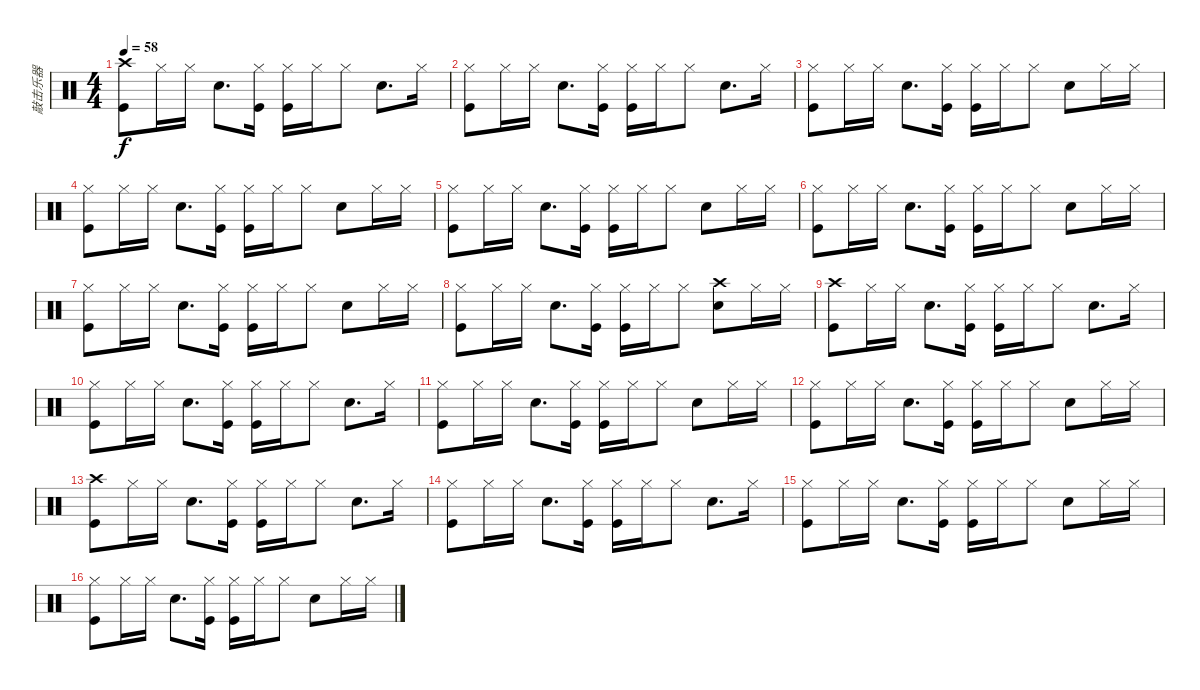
\track ("敲击乐器" "敲击乐器") {instrument percussion}
\staff {score}
\articulation defaults
\ts (4 4)
\tempo 58
\clef neutral
\ks c
("Crash high (hit)" "Kick (hit)").8{dy f} "Hi-Hat (closed)".16 "Hi-Hat (closed)".16 "Hand Clap (hit)".8{d} ("Hi-Hat (closed)" "Kick (hit)").16 ("Hi-Hat (closed)" "Kick (hit)").16 "Hi-Hat (closed)".16 "Hi-Hat (closed)".8 "Hand Clap (hit)".8{d} "Hi-Hat (closed)".16 |
("Hi-Hat (closed)" "Kick (hit)").8 "Hi-Hat (closed)".16 "Hi-Hat (closed)".16 "Hand Clap (hit)".8{d} ("Hi-Hat (closed)" "Kick (hit)").16 ("Hi-Hat (closed)" "Kick (hit)").16 "Hi-Hat (closed)".16 "Hi-Hat (closed)".8 "Hand Clap (hit)".8{d} "Hi-Hat (closed)".16 |
("Hi-Hat (closed)" "Kick (hit)").8 "Hi-Hat (closed)".16 "Hi-Hat (closed)".16 "Hand Clap (hit)".8{d} ("Hi-Hat (closed)" "Kick (hit)").16 ("Hi-Hat (closed)" "Kick (hit)").16 "Hi-Hat (closed)".16 "Hi-Hat (closed)".8 "Hand Clap (hit)".8 "Hi-Hat (closed)".16 "Hi-Hat (closed)".16 |
("Hi-Hat (closed)" "Kick (hit)").8 "Hi-Hat (closed)".16 "Hi-Hat (closed)".16 "Hand Clap (hit)".8{d} ("Hi-Hat (closed)" "Kick (hit)").16 ("Hi-Hat (closed)" "Kick (hit)").16 "Hi-Hat (closed)".16 "Hi-Hat (closed)".8 "Hand Clap (hit)".8 "Hi-Hat (closed)".16 "Hi-Hat (closed)".16 |
("Hi-Hat (closed)" "Kick (hit)").8 "Hi-Hat (closed)".16 "Hi-Hat (closed)".16 "Hand Clap (hit)".8{d} ("Hi-Hat (closed)" "Kick (hit)").16 ("Hi-Hat (closed)" "Kick (hit)").16 "Hi-Hat (closed)".16 "Hi-Hat (closed)".8 "Hand Clap (hit)".8 "Hi-Hat (closed)".16 "Hi-Hat (closed)".16 |
("Hi-Hat (closed)" "Kick (hit)").8 "Hi-Hat (closed)".16 "Hi-Hat (closed)".16 "Hand Clap (hit)".8{d} ("Hi-Hat (closed)" "Kick (hit)").16 ("Hi-Hat (closed)" "Kick (hit)").16 "Hi-Hat (closed)".16 "Hi-Hat (closed)".8 "Hand Clap (hit)".8 "Hi-Hat (closed)".16 "Hi-Hat (closed)".16 |
("Hi-Hat (closed)" "Kick (hit)").8 "Hi-Hat (closed)".16 "Hi-Hat (closed)".16 "Hand Clap (hit)".8{d} ("Hi-Hat (closed)" "Kick (hit)").16 ("Hi-Hat (closed)" "Kick (hit)").16 "Hi-Hat (closed)".16 "Hi-Hat (closed)".8 "Hand Clap (hit)".8 "Hi-Hat (closed)".16 "Hi-Hat (closed)".16 |
("Hi-Hat (closed)" "Kick (hit)").8 "Hi-Hat (closed)".16 "Hi-Hat (closed)".16 "Hand Clap (hit)".8{d} ("Hi-Hat (closed)" "Kick (hit)").16 ("Hi-Hat (closed)" "Kick (hit)").16 "Hi-Hat (closed)".16 "Hi-Hat (closed)".8 ("Crash high (hit)" "Hand Clap (hit)").8 "Hi-Hat (closed)".16 "Hi-Hat (closed)".16 |
("Crash high (hit)" "Kick (hit)").8 "Hi-Hat (closed)".16 "Hi-Hat (closed)".16 "Hand Clap (hit)".8{d} ("Hi-Hat (closed)" "Kick (hit)").16 ("Hi-Hat (closed)" "Kick (hit)").16 "Hi-Hat (closed)".16 "Hi-Hat (closed)".8 "Hand Clap (hit)".8{d} "Hi-Hat (closed)".16 |
("Hi-Hat (closed)" "Kick (hit)").8 "Hi-Hat (closed)".16 "Hi-Hat (closed)".16 "Hand Clap (hit)".8{d} ("Hi-Hat (closed)" "Kick (hit)").16 ("Hi-Hat (closed)" "Kick (hit)").16 "Hi-Hat (closed)".16 "Hi-Hat (closed)".8 "Hand Clap (hit)".8{d} "Hi-Hat (closed)".16 |
("Hi-Hat (closed)" "Kick (hit)").8 "Hi-Hat (closed)".16 "Hi-Hat (closed)".16 "Hand Clap (hit)".8{d} ("Hi-Hat (closed)" "Kick (hit)").16 ("Hi-Hat (closed)" "Kick (hit)").16 "Hi-Hat (closed)".16 "Hi-Hat (closed)".8 "Hand Clap (hit)".8 "Hi-Hat (closed)".16 "Hi-Hat (closed)".16 |
("Hi-Hat (closed)" "Kick (hit)").8 "Hi-Hat (closed)".16 "Hi-Hat (closed)".16 "Hand Clap (hit)".8{d} ("Hi-Hat (closed)" "Kick (hit)").16 ("Hi-Hat (closed)" "Kick (hit)").16 "Hi-Hat (closed)".16 "Hi-Hat (closed)".8 "Hand Clap (hit)".8 "Hi-Hat (closed)".16 "Hi-Hat (closed)".16 |
("Crash high (hit)" "Kick (hit)").8 "Hi-Hat (closed)".16 "Hi-Hat (closed)".16 "Hand Clap (hit)".8{d} ("Hi-Hat (closed)" "Kick (hit)").16 ("Hi-Hat (closed)" "Kick (hit)").16 "Hi-Hat (closed)".16 "Hi-Hat (closed)".8 "Hand Clap (hit)".8{d} "Hi-Hat (closed)".16 |
("Hi-Hat (closed)" "Kick (hit)").8 "Hi-Hat (closed)".16 "Hi-Hat (closed)".16 "Hand Clap (hit)".8{d} ("Hi-Hat (closed)" "Kick (hit)").16 ("Hi-Hat (closed)" "Kick (hit)").16 "Hi-Hat (closed)".16 "Hi-Hat (closed)".8 "Hand Clap (hit)".8{d} "Hi-Hat (closed)".16 |
("Hi-Hat (closed)" "Kick (hit)").8 "Hi-Hat (closed)".16 "Hi-Hat (closed)".16 "Hand Clap (hit)".8{d} ("Hi-Hat (closed)" "Kick (hit)").16 ("Hi-Hat (closed)" "Kick (hit)").16 "Hi-Hat (closed)".16 "Hi-Hat (closed)".8 "Hand Clap (hit)".8 "Hi-Hat (closed)".16 "Hi-Hat (closed)".16 |
("Hi-Hat (closed)" "Kick (hit)").8 "Hi-Hat (closed)".16 "Hi-Hat (closed)".16 "Hand Clap (hit)".8{d} ("Hi-Hat (closed)" "Kick (hit)").16 ("Hi-Hat (closed)" "Kick (hit)").16 "Hi-Hat (closed)".16 "Hi-Hat (closed)".8 "Hand Clap (hit)".8 "Hi-Hat (closed)".16 "Hi-Hat (closed)".16
